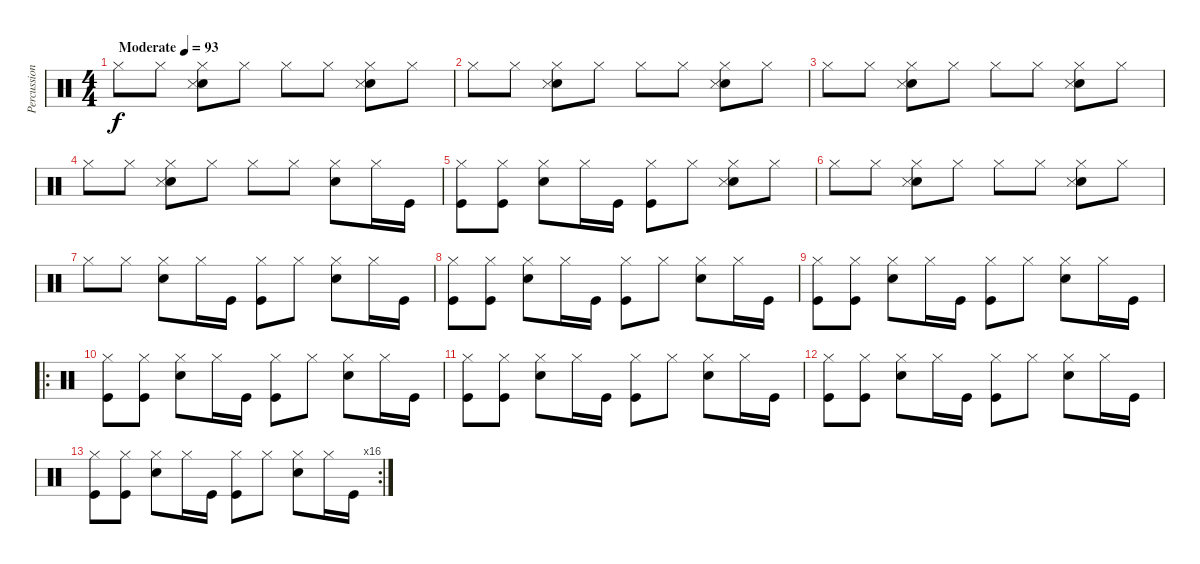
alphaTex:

\track ("Percussion" "Percussion") {instrument percussion}
\staff {score}
\articulation defaults
\ts (4 4)
\tempo (93 "Moderate")
\clef neutral
\ks c "Hi-Hat (closed)".8{dy f} "Hi-Hat (closed)".8
("Hi-Hat (closed)" "Snare (hit) 2" "Snare (side stick) 3").8 "Hi-Hat (closed)".8 "Hi-Hat (closed)".8 "Hi-Hat (closed)".8 ("Hi-Hat (closed)" "Snare (hit) 2" "Snare (side stick) 3").8 "Hi-Hat (closed)".8 |
"Hi-Hat (closed)".8 "Hi-Hat (closed)".8 ("Hi-Hat (closed)" "Snare (hit) 2" "Snare (side stick) 3").8 "Hi-Hat (closed)".8 "Hi-Hat (closed)".8 "Hi-Hat (closed)".8 ("Hi-Hat (closed)" "Snare (hit) 2" "Snare (side stick) 3").8 "Hi-Hat (closed)".8 |
"Hi-Hat (closed)".8 "Hi-Hat (closed)".8 ("Hi-Hat (closed)" "Snare (hit) 2" "Snare (side stick) 3").8 "Hi-Hat (closed)".8 "Hi-Hat (closed)".8 "Hi-Hat (closed)".8 ("Hi-Hat (closed)" "Snare (hit) 2" "Snare (side stick) 3").8 "Hi-Hat (closed)".8 |
"Hi-Hat (closed)".8 "Hi-Hat (closed)".8 ("Hi-Hat (closed)" "Snare (hit) 2" "Snare (side stick) 3").8 "Hi-Hat (closed)".8 "Hi-Hat (closed)".8 "Hi-Hat (closed)".8 ("Hi-Hat (closed)" "Electric Snare (hit)").8 "Hi-Hat (closed)".16 "Kick (hit)".16 |
("Hi-Hat (closed)" "Kick (hit)").8 ("Hi-Hat (closed)" "Kick (hit)").8 ("Hi-Hat (closed)" "Electric Snare (hit)").8 "Hi-Hat (closed)".16 "Kick (hit)".16 ("Hi-Hat (closed)" "Kick (hit)").8 "Hi-Hat (closed)".8 ("Hi-Hat (closed)" "Snare (hit) 2" "Snare (side stick) 3").8 "Hi-Hat (closed)".8 |
"Hi-Hat (closed)".8 "Hi-Hat (closed)".8 ("Hi-Hat (closed)" "Snare (hit) 2" "Snare (side stick) 3").8 "Hi-Hat (closed)".8 "Hi-Hat (closed)".8 "Hi-Hat (closed)".8 ("Hi-Hat (closed)" "Snare (hit) 2" "Snare (side stick) 3").8 "Hi-Hat (closed)".8 |
"Hi-Hat (closed)".8 "Hi-Hat (closed)".8 ("Hi-Hat (closed)" "Electric Snare (hit)").8 "Hi-Hat (closed)".16 "Kick (hit)".16 ("Hi-Hat (closed)" "Kick (hit)").8 "Hi-Hat (closed)".8 ("Hi-Hat (closed)" "Electric Snare (hit)").8 "Hi-Hat (closed)".16 "Kick (hit)".16 |
("Hi-Hat (closed)" "Kick (hit)").8 ("Hi-Hat (closed)" "Kick (hit)").8 ("Hi-Hat (closed)" "Electric Snare (hit)").8 "Hi-Hat (closed)".16 "Kick (hit)".16 ("Hi-Hat (closed)" "Kick (hit)").8 "Hi-Hat (closed)".8 ("Hi-Hat (closed)" "Electric Snare (hit)").8 "Hi-Hat (closed)".16 "Kick (hit)".16 |
("Hi-Hat (closed)" "Kick (hit)").8 ("Hi-Hat (closed)" "Kick (hit)").8 ("Hi-Hat (closed)" "Electric Snare (hit)").8 "Hi-Hat (closed)".16 "Kick (hit)".16 ("Hi-Hat (closed)" "Kick (hit)").8 "Hi-Hat (closed)".8 ("Hi-Hat (closed)" "Electric Snare (hit)").8 "Hi-Hat (closed)".16 "Kick (hit)".16 |
\ro
("Hi-Hat (closed)" "Kick (hit)").8 ("Hi-Hat (closed)" "Kick (hit)").8 ("Hi-Hat (closed)" "Electric Snare (hit)").8 "Hi-Hat (closed)".16 "Kick (hit)".16 ("Hi-Hat (closed)" "Kick (hit)").8 "Hi-Hat (closed)".8 ("Hi-Hat (closed)" "Electric Snare (hit)").8 "Hi-Hat (closed)".16 "Kick (hit)".16 |
("Hi-Hat (closed)" "Kick (hit)").8 ("Hi-Hat (closed)" "Kick (hit)").8 ("Hi-Hat (closed)" "Electric Snare (hit)").8 "Hi-Hat (closed)".16 "Kick (hit)".16 ("Hi-Hat (closed)" "Kick (hit)").8 "Hi-Hat (closed)".8 ("Hi-Hat (closed)" "Electric Snare (hit)").8 "Hi-Hat (closed)".16 "Kick (hit)".16 |
("Hi-Hat (closed)" "Kick (hit)").8 ("Hi-Hat (closed)" "Kick (hit)").8 ("Hi-Hat (closed)" "Electric Snare (hit)").8 "Hi-Hat (closed)".16 "Kick (hit)".16 ("Hi-Hat (closed)" "Kick (hit)").8 "Hi-Hat (closed)".8 ("Hi-Hat (closed)" "Electric Snare (hit)").8 "Hi-Hat (closed)".16 "Kick (hit)".16 |
\rc 16
("Hi-Hat (closed)" "Kick (hit)").8 ("Hi-Hat (closed)" "Kick (hit)").8 ("Hi-Hat (closed)" "Electric Snare (hit)").8 "Hi-Hat (closed)".16 "Kick (hit)".16 ("Hi-Hat (closed)" "Kick (hit)").8 "Hi-Hat (closed)".8 ("Hi-Hat (closed)" "Electric Snare (hit)").8 "Hi-Hat (closed)".16 "Kick (hit)".16
